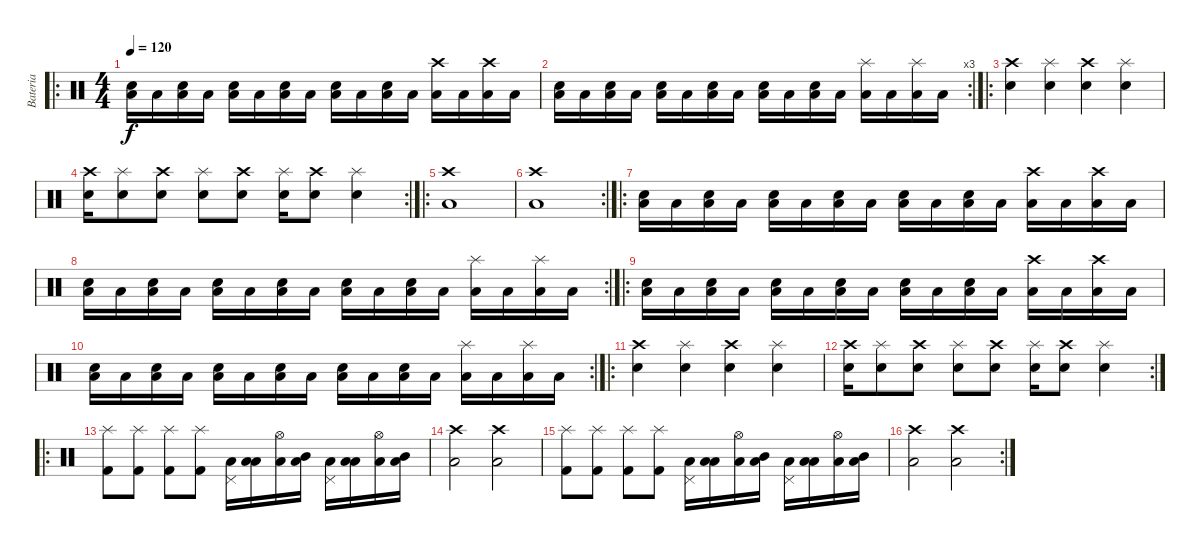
\track ("Bateria" "Bateria") {instrument percussion}
\staff {score}
\articulation defaults
\ro
\ts (4 4)
\tempo 120
\clef neutral
\ks c
("Low Tom (hit)" "Electric Snare (hit)").16{dy f} "Low Tom (hit)".16 ("Low Tom (hit)" "Electric Snare (hit)").16 "Low Tom (hit)".16 ("Low Tom (hit)" "Electric Snare (hit)").16 "Low Tom (hit)".16 ("Low Tom (hit)" "Electric Snare (hit)").16 "Low Tom (hit)".16 ("Low Tom (hit)" "Electric Snare (hit)").16 "Low Tom (hit)".16 ("Low Tom (hit)" "Electric Snare (hit)").16 "Low Tom (hit)".16 ("Low Tom (hit)" "Crash high (hit)").16 "Low Tom (hit)".16 ("Low Tom (hit)" "Crash high (hit)").16 "Low Tom (hit)".16 |
\rc 3
("Low Tom (hit)" "Electric Snare (hit)").16 "Low Tom (hit)".16 ("Low Tom (hit)" "Electric Snare (hit)").16 "Low Tom (hit)".16 ("Low Tom (hit)" "Electric Snare (hit)").16 "Low Tom (hit)".16 ("Low Tom (hit)" "Electric Snare (hit)").16 "Low Tom (hit)".16 ("Low Tom (hit)" "Electric Snare (hit)").16 "Low Tom (hit)".16 ("Low Tom (hit)" "Electric Snare (hit)").16 "Low Tom (hit)".16 ("Low Tom (hit)" "Splash (hit)").16 "Low Tom (hit)".16 ("Low Tom (hit)" "Splash (hit)").16 "Low Tom (hit)".16 |
\ro
("Electric Snare (hit)" "Crash high (hit)").4 ("Electric Snare (hit)" "Splash (hit)").4 ("Electric Snare (hit)" "Crash high (hit)").4 ("Electric Snare (hit)" "Splash (hit)").4 |
\rc 2
("Electric Snare (hit)" "Crash high (hit)").16 ("Electric Snare (hit)" "Splash (hit)").8 ("Electric Snare (hit)" "Crash high (hit)").8 ("Electric Snare (hit)" "Splash (hit)").8 ("Electric Snare (hit)" "Crash high (hit)").8 ("Electric Snare (hit)" "Splash (hit)").16 ("Electric Snare (hit)" "Crash high (hit)").8 ("Electric Snare (hit)" "Splash (hit)").4 |
\ro
("Crash high (hit)" "Low Tom (hit)").1 |
\rc 2
("Crash high (hit)" "Low Tom (hit)").1 |
\ro
("Low Tom (hit)" "Electric Snare (hit)").16 "Low Tom (hit)".16 ("Low Tom (hit)" "Electric Snare (hit)").16 "Low Tom (hit)".16 ("Low Tom (hit)" "Electric Snare (hit)").16 "Low Tom (hit)".16 ("Low Tom (hit)" "Electric Snare (hit)").16 "Low Tom (hit)".16 ("Low Tom (hit)" "Electric Snare (hit)").16 "Low Tom (hit)".16 ("Low Tom (hit)" "Electric Snare (hit)").16 "Low Tom (hit)".16 ("Low Tom (hit)" "Crash high (hit)").16 "Low Tom (hit)".16 ("Low Tom (hit)" "Crash high (hit)").16 "Low Tom (hit)".16 |
\rc 2
("Low Tom (hit)" "Electric Snare (hit)").16 "Low Tom (hit)".16 ("Low Tom (hit)" "Electric Snare (hit)").16 "Low Tom (hit)".16 ("Low Tom (hit)" "Electric Snare (hit)").16 "Low Tom (hit)".16 ("Low Tom (hit)" "Electric Snare (hit)").16 "Low Tom (hit)".16 ("Low Tom (hit)" "Electric Snare (hit)").16 "Low Tom (hit)".16 ("Low Tom (hit)" "Electric Snare (hit)").16 "Low Tom (hit)".16 ("Low Tom (hit)" "Splash (hit)").16 "Low Tom (hit)".16 ("Low Tom (hit)" "Splash (hit)").16 "Low Tom (hit)".16 |
\ro
("Low Tom (hit)" "Electric Snare (hit)").16 "Low Tom (hit)".16 ("Low Tom (hit)" "Electric Snare (hit)").16 "Low Tom (hit)".16 ("Low Tom (hit)" "Electric Snare (hit)").16 "Low Tom (hit)".16 ("Low Tom (hit)" "Electric Snare (hit)").16 "Low Tom (hit)".16 ("Low Tom (hit)" "Electric Snare (hit)").16 "Low Tom (hit)".16 ("Low Tom (hit)" "Electric Snare (hit)").16 "Low Tom (hit)".16 ("Low Tom (hit)" "Crash high (hit)").16 "Low Tom (hit)".16 ("Low Tom (hit)" "Crash high (hit)").16 "Low Tom (hit)".16 |
\rc 2
("Low Tom (hit)" "Electric Snare (hit)").16 "Low Tom (hit)".16 ("Low Tom (hit)" "Electric Snare (hit)").16 "Low Tom (hit)".16 ("Low Tom (hit)" "Electric Snare (hit)").16 "Low Tom (hit)".16 ("Low Tom (hit)" "Electric Snare (hit)").16 "Low Tom (hit)".16 ("Low Tom (hit)" "Electric Snare (hit)").16 "Low Tom (hit)".16 ("Low Tom (hit)" "Electric Snare (hit)").16 "Low Tom (hit)".16 ("Low Tom (hit)" "Splash (hit)").16 "Low Tom (hit)".16 ("Low Tom (hit)" "Splash (hit)").16 "Low Tom (hit)".16 |
\ro
("Electric Snare (hit)" "Crash high (hit)").4 ("Electric Snare (hit)" "Splash (hit)").4 ("Electric Snare (hit)" "Crash high (hit)").4 ("Electric Snare (hit)" "Splash (hit)").4 |
\rc 2
("Electric Snare (hit)" "Crash high (hit)").16 ("Electric Snare (hit)" "Splash (hit)").8 ("Electric Snare (hit)" "Crash high (hit)").8 ("Electric Snare (hit)" "Splash (hit)").8 ("Electric Snare (hit)" "Crash high (hit)").8 ("Electric Snare (hit)" "Splash (hit)").16 ("Electric Snare (hit)" "Crash high (hit)").8 ("Electric Snare (hit)" "Splash (hit)").4 |
\ro
("Kick (hit) 2" "Splash (hit)").8 ("Kick (hit) 2" "Splash (hit)").8 ("Kick (hit) 2" "Splash (hit)").8 ("Kick (hit) 2" "Splash (hit)").8 ("Low Tom (hit)" "Pedal Hi-Hat (hit)").16 ("Low Tom (hit)" "Low Tom (hit)").16 ("Low Tom (hit)" "Hi-Hat (open)").16 ("Low Tom (hit)" "Mid Tom (hit)").16 ("Low Tom (hit)" "Pedal Hi-Hat (hit)").16 ("Low Tom (hit)" "Low Tom (hit)").16 ("Low Tom (hit)" "Hi-Hat (open)").16 ("Low Tom (hit)" "Mid Tom (hit)").16 |
("Crash high (hit)" "Low Tom (hit)").2 ("Crash high (hit)" "Low Tom (hit)").2 |
("Kick (hit) 2" "Splash (hit)").8 ("Kick (hit) 2" "Splash (hit)").8 ("Kick (hit) 2" "Splash (hit)").8 ("Kick (hit) 2" "Splash (hit)").8 ("Low Tom (hit)" "Pedal Hi-Hat (hit)").16 ("Low Tom (hit)" "Low Tom (hit)").16 ("Low Tom (hit)" "Hi-Hat (open)").16 ("Low Tom (hit)" "Mid Tom (hit)").16 ("Low Tom (hit)" "Pedal Hi-Hat (hit)").16 ("Low Tom (hit)" "Low Tom (hit)").16 ("Low Tom (hit)" "Hi-Hat (open)").16 ("Low Tom (hit)" "Mid Tom (hit)").16 |
\rc 2
("Crash high (hit)" "Low Tom (hit)").2 ("Crash high (hit)" "Low Tom (hit)").2
